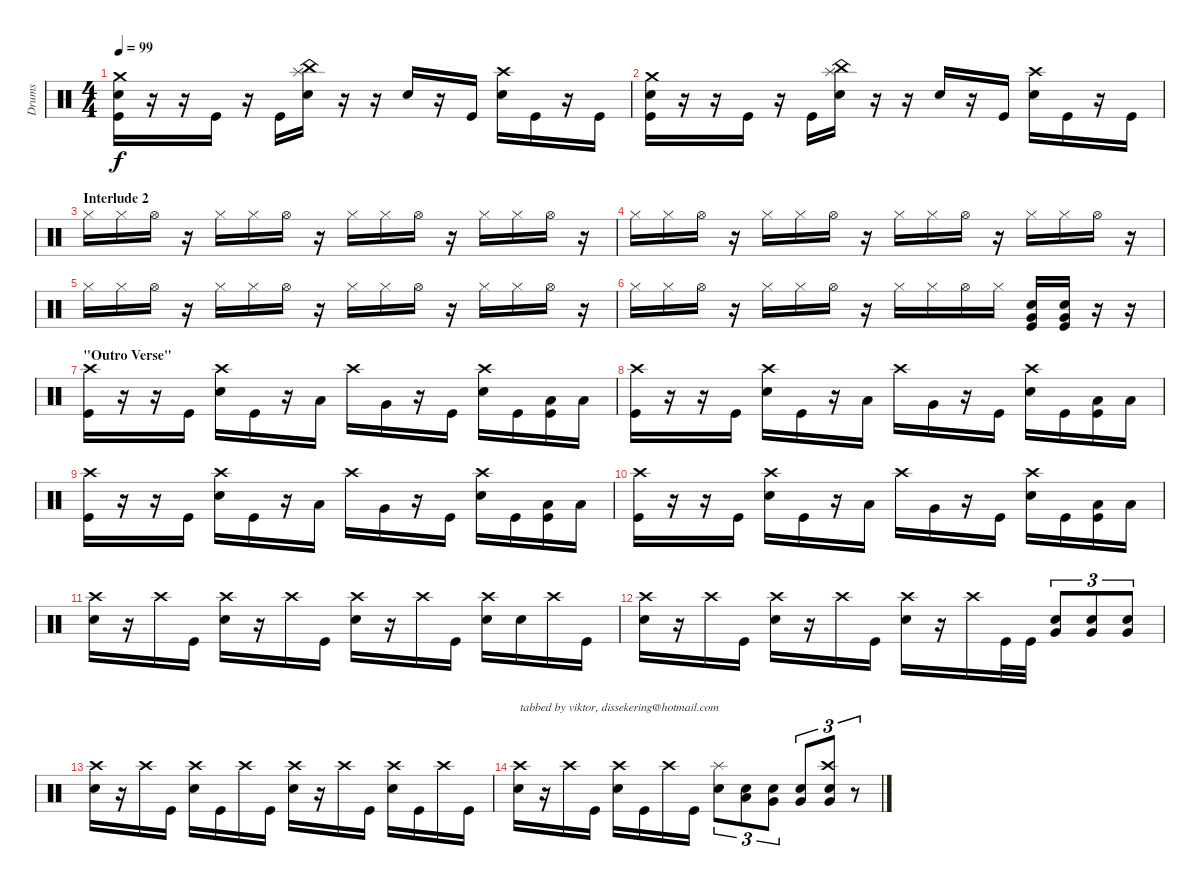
\track ("Drums" "Drums") {instrument percussion}
\staff {score}
\articulation defaults
\ts (4 4)
\tempo 99
\clef neutral
\ks c
("Kick (hit)" "Electric Snare (hit)" "Crash medium (hit)").16{dy f} r.16 r.16 "Kick (hit)".16 r.16 "Kick (hit)".16 ("Splash (hit)" "Electric Snare (hit)" "China (hit)").16 r.16 r.16 "Electric Snare (hit)".16 r.16 "Kick (hit)".16 ("Electric Snare (hit)" "Crash high (hit)").16 "Kick (hit)".16 r.16 "Kick (hit)".16 |
("Kick (hit)" "Electric Snare (hit)" "Crash medium (hit)").16 r.16 r.16 "Kick (hit)".16 r.16 "Kick (hit)".16 ("Splash (hit)" "Electric Snare (hit)" "China (hit)").16 r.16 r.16 "Electric Snare (hit)".16 r.16 "Kick (hit)".16 ("Electric Snare (hit)" "Crash high (hit)").16 "Kick (hit)".16 r.16 "Kick (hit)".16 |
\section ("" "Interlude 2")
"Hi-Hat (closed)".16{volume 10} "Hi-Hat (closed)".16 "Hi-Hat (open)".16 r.16 "Hi-Hat (closed)".16 "Hi-Hat (closed)".16 "Hi-Hat (open)".16 r.16 "Hi-Hat (closed)".16 "Hi-Hat (closed)".16 "Hi-Hat (open)".16 r.16 "Hi-Hat (closed)".16 "Hi-Hat (closed)".16 "Hi-Hat (open)".16 r.16 |
"Hi-Hat (closed)".16{volume 10 balance 10} "Hi-Hat (closed)".16 "Hi-Hat (open)".16 r.16 "Hi-Hat (closed)".16 "Hi-Hat (closed)".16 "Hi-Hat (open)".16 r.16 "Hi-Hat (closed)".16 "Hi-Hat (closed)".16 "Hi-Hat (open)".16 r.16 "Hi-Hat (closed)".16 "Hi-Hat (closed)".16 "Hi-Hat (open)".16 r.16 |
"Hi-Hat (closed)".16{volume 10} "Hi-Hat (closed)".16 "Hi-Hat (open)".16 r.16 "Hi-Hat (closed)".16 "Hi-Hat (closed)".16 "Hi-Hat (open)".16 r.16 "Hi-Hat (closed)".16 "Hi-Hat (closed)".16 "Hi-Hat (open)".16 r.16 "Hi-Hat (closed)".16 "Hi-Hat (closed)".16 "Hi-Hat (open)".16 r.16 |
"Hi-Hat (closed)".16{volume 10 balance 10} "Hi-Hat (closed)".16 "Hi-Hat (open)".16 r.16 "Hi-Hat (closed)".16 "Hi-Hat (closed)".16 "Hi-Hat (open)".16 r.16 "Hi-Hat (closed)".16 "Hi-Hat (closed)".16 "Hi-Hat (open)".16 "Hi-Hat (closed)".16 ("Very Low Tom (hit)" "Kick (hit)" "Electric Snare (hit)").16{volume 15} ("Very Low Tom (hit)" "Kick (hit)" "Electric Snare (hit)").16 r.16 r.16 |
\section ("" "\"Outro Verse\"")
("Kick (hit)" "Crash high (hit)").16 r.16 r.16 "Kick (hit)".16 ("Electric Snare (hit)" "Crash high (hit)").16 "Kick (hit)".16 r.16 "Low Tom (hit)".16 "Crash high (hit)".16 "Very Low Tom (hit)".16 r.16 "Kick (hit)".16 ("Electric Snare (hit)" "Crash high (hit)").16 "Kick (hit)".16 ("Kick (hit)" "Low Floor Tom (hit)").16 "Low Floor Tom (hit)".16 |
("Kick (hit)" "Crash high (hit)").16 r.16 r.16 "Kick (hit)".16 ("Electric Snare (hit)" "Crash high (hit)").16 "Kick (hit)".16 r.16 "Low Tom (hit)".16 "Crash high (hit)".16 "Very Low Tom (hit)".16 r.16 "Kick (hit)".16 ("Electric Snare (hit)" "Crash high (hit)").16 "Kick (hit)".16 ("Kick (hit)" "Low Floor Tom (hit)").16 "Low Floor Tom (hit)".16 |
("Kick (hit)" "Crash high (hit)").16 r.16 r.16 "Kick (hit)".16 ("Electric Snare (hit)" "Crash high (hit)").16 "Kick (hit)".16 r.16 "Low Tom (hit)".16 "Crash high (hit)".16 "Very Low Tom (hit)".16 r.16 "Kick (hit)".16 ("Electric Snare (hit)" "Crash high (hit)").16 "Kick (hit)".16 ("Kick (hit)" "Low Floor Tom (hit)").16 "Low Floor Tom (hit)".16 |
("Kick (hit)" "Crash high (hit)").16 r.16 r.16 "Kick (hit)".16 ("Electric Snare (hit)" "Crash high (hit)").16 "Kick (hit)".16 r.16 "Low Tom (hit)".16 "Crash high (hit)".16 "Very Low Tom (hit)".16 r.16 "Kick (hit)".16 ("Electric Snare (hit)" "Crash high (hit)").16 "Kick (hit)".16 ("Kick (hit)" "Low Floor Tom (hit)").16 "Low Floor Tom (hit)".16 |
("Crash high (hit)" "Electric Snare (hit)").16 r.16 "Crash high (hit)".16 "Kick (hit)".16 ("Crash high (hit)" "Electric Snare (hit)").16 r.16 "Crash high (hit)".16 "Kick (hit)".16 ("Crash high (hit)" "Electric Snare (hit)").16 r.16 "Crash high (hit)".16 "Kick (hit)".16 ("Crash high (hit)" "Electric Snare (hit)").16 "Electric Snare (hit)".16 "Crash high (hit)".16 "Kick (hit)".16 |
("Crash high (hit)" "Electric Snare (hit)").16 r.16 "Crash high (hit)".16 "Kick (hit)".16 ("Crash high (hit)" "Electric Snare (hit)").16 r.16 "Crash high (hit)".16 "Kick (hit)".16 ("Crash high (hit)" "Electric Snare (hit)").16 r.16 "Crash high (hit)".16 "Kick (hit)".32 "Kick (hit)".32 ("Electric Snare (hit)" "Very Low Tom (hit)").8{tu (3 2)} ("Electric Snare (hit)" "Very Low Tom (hit)").8{tu (3 2)} ("Electric Snare (hit)" "Very Low Tom (hit)").8{tu (3 2)} |
("Crash high (hit)" "Electric Snare (hit)").16 r.16 "Crash high (hit)".16 "Kick (hit)".16 ("Crash high (hit)" "Electric Snare (hit)").16 "Kick (hit)".16 "Crash high (hit)".16 "Kick (hit)".16 ("Crash high (hit)" "Electric Snare (hit)").16 r.16 "Crash high (hit)".16 "Kick (hit)".16 ("Crash high (hit)" "Electric Snare (hit)").16 "Kick (hit)".16 "Crash high (hit)".16 "Kick (hit)".16 |
("Crash high (hit)" "Electric Snare (hit)").16{txt "tabbed by viktor, dissekering@hotmail.com"} r.16 "Crash high (hit)".16 "Kick (hit)".16 ("Crash high (hit)" "Electric Snare (hit)").16 "Kick (hit)".16 "Crash high (hit)".16 "Kick (hit)".16 ("Splash (hit)" "Electric Snare (hit)").8{tu (3 2)} ("Low Tom (hit)" "Electric Snare (hit)").8{tu (3 2)} ("Very Low Tom (hit)" "Electric Snare (hit)").8{tu (3 2)} ("Very Low Tom (hit)" "Electric Snare (hit)").8{tu (3 2)} ("Crash high (hit)" "Very Low Tom (hit)" "Electric Snare (hit)").8{tu (3 2)} r.8{tu (3 2)}
